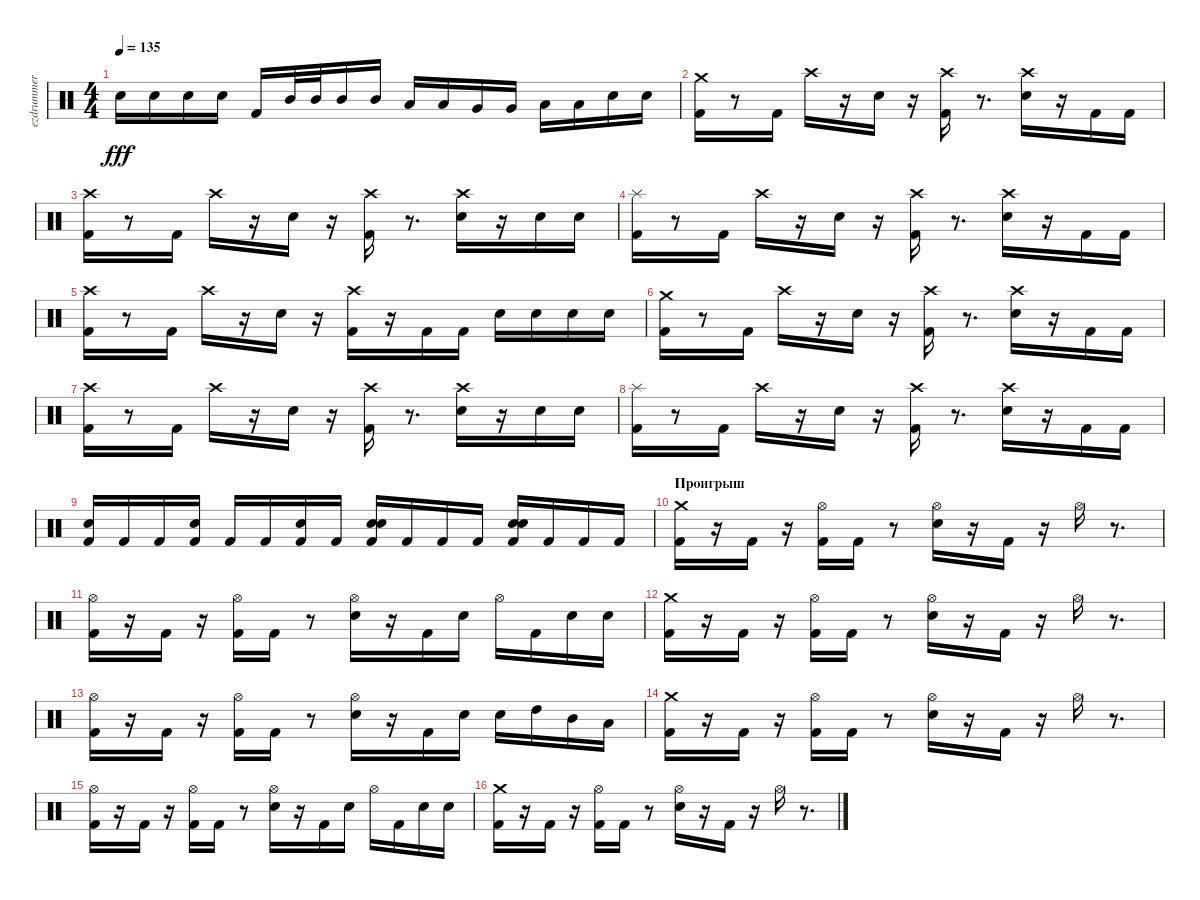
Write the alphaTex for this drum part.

\track ("ezdrummer" "ezdrummer") {instrument percussion}
\staff {score}
\articulation defaults
\ts (4 4)
\tempo 135
\clef neutral
\ks c "Snare (hit) 2".16{dy fff} "Snare (hit) 2".16 "Snare (hit) 2".16 "Snare (hit) 2".16 "Kick (hit) 2".16 "Mid Tom (hit)".32 "Mid Tom (hit)".32 "Mid Tom (hit)".16 "Mid Tom (hit)".16 "Low Tom (hit)".16 "Low Tom (hit)".16 "Very Low Tom (hit)".16 "Very Low Tom (hit)".16 "Low Floor Tom (hit)".16 "Low Floor Tom (hit)".16 "Snare (hit) 2".16 "Snare (hit) 2".16
|
("Kick (hit) 2" "Crash medium (hit)").16 r.8 "Kick (hit) 2".16 "Crash high (hit)".16 r.16 "Snare (hit) 2".16 r.16 ("Kick (hit) 2" "Crash high (hit)").16 r.8{d} ("Snare (hit) 2" "Crash high (hit)").16 r.16 "Kick (hit) 2".16 "Kick (hit) 2".16 |
("Kick (hit) 2" "Crash high (hit)").16 r.8 "Kick (hit) 2".16 "Crash high (hit)".16 r.16 "Snare (hit) 2".16 r.16 ("Kick (hit) 2" "Crash high (hit)").16 r.8{d} ("Snare (hit) 2" "Crash high (hit)").16 r.16 "Snare (hit) 2".16 "Snare (hit) 2".16 |
("Kick (hit) 2" "Splash (hit)").16 r.8 "Kick (hit) 2".16 "Crash high (hit)".16 r.16 "Snare (hit) 2".16 r.16 ("Kick (hit) 2" "Crash high (hit)").16 r.8{d} ("Snare (hit) 2" "Crash high (hit)").16 r.16 "Kick (hit) 2".16 "Kick (hit) 2".16 |
("Kick (hit) 2" "Crash high (hit)").16 r.8 "Kick (hit) 2".16 "Crash high (hit)".16 r.16 "Snare (hit) 2".16 r.16 ("Kick (hit) 2" "Crash high (hit)").16 r.16 "Kick (hit) 2".16 "Kick (hit) 2".16 "Snare (hit) 2".16 "Snare (hit) 2".16 "Snare (hit) 2".16 "Snare (hit) 2".16 |
("Kick (hit) 2" "Crash medium (hit)").16 r.8 "Kick (hit) 2".16 "Crash high (hit)".16 r.16 "Snare (hit) 2".16 r.16 ("Kick (hit) 2" "Crash high (hit)").16 r.8{d} ("Snare (hit) 2" "Crash high (hit)").16 r.16 "Kick (hit) 2".16 "Kick (hit) 2".16 |
("Kick (hit) 2" "Crash high (hit)").16 r.8 "Kick (hit) 2".16 "Crash high (hit)".16 r.16 "Snare (hit) 2".16 r.16 ("Kick (hit) 2" "Crash high (hit)").16 r.8{d} ("Snare (hit) 2" "Crash high (hit)").16 r.16 "Snare (hit) 2".16 "Snare (hit) 2".16 |
("Kick (hit) 2" "Splash (hit)").16 r.8 "Kick (hit) 2".16 "Crash high (hit)".16 r.16 "Snare (hit) 2".16 r.16 ("Kick (hit) 2" "Crash high (hit)").16 r.8{d} ("Snare (hit) 2" "Crash high (hit)").16 r.16 "Kick (hit) 2".16 "Kick (hit) 2".16 |
("Kick (hit) 2" "Snare (hit) 2").16 "Kick (hit) 2".16 "Kick (hit) 2".16 ("Kick (hit) 2" "Snare (hit) 2").16 "Kick (hit) 2".16 "Kick (hit) 2".16 ("Kick (hit) 2" "Snare (hit) 2").16 "Kick (hit) 2".16 ("Snare (hit) 2" "Kick (hit) 2" "Snare (hit) 2").16 "Kick (hit) 2".16 "Kick (hit) 2".16 "Kick (hit) 2".16 ("Snare (hit) 2" "Kick (hit) 2" "Snare (hit) 2").16 "Kick (hit) 2".16 "Kick (hit) 2".16 "Kick (hit) 2".16 |
\section ("" "Проигрыш")
("Kick (hit) 2" "Crash medium (hit)").16 r.16 "Kick (hit) 2".16 r.16 ("Kick (hit) 2" "Hi-Hat (open)").16 "Kick (hit) 2".16 r.8 ("Snare (hit) 2" "Hi-Hat (open)").16 r.16 "Kick (hit) 2".16 r.16 "Hi-Hat (open)".16 r.8{d} |
("Kick (hit) 2" "Hi-Hat (open)").16 r.16 "Kick (hit) 2".16 r.16 ("Kick (hit) 2" "Hi-Hat (open)").16 "Kick (hit) 2".16 r.8 ("Snare (hit) 2" "Hi-Hat (open)").16 r.16 "Kick (hit) 2".16 "Snare (hit) 2".16 "Hi-Hat (open)".16 "Kick (hit) 2".16 "Snare (hit) 2".16 "Snare (hit) 2".16 |
("Kick (hit) 2" "Crash medium (hit)").16 r.16 "Kick (hit) 2".16 r.16 ("Kick (hit) 2" "Hi-Hat (open)").16 "Kick (hit) 2".16 r.8 ("Snare (hit) 2" "Hi-Hat (open)").16 r.16 "Kick (hit) 2".16 r.16 "Hi-Hat (open)".16 r.8{d} |
("Kick (hit) 2" "Hi-Hat (open)").16 r.16 "Kick (hit) 2".16 r.16 ("Kick (hit) 2" "Hi-Hat (open)").16 "Kick (hit) 2".16 r.8 ("Snare (hit) 2" "Hi-Hat (open)").16 r.16 "Kick (hit) 2".16 "Snare (hit) 2".16 "Snare (hit) 2".16 "High Tom (hit)".16 "Mid Tom (hit)".16 "Low Tom (hit)".16 |
("Kick (hit) 2" "Crash medium (hit)").16 r.16 "Kick (hit) 2".16 r.16 ("Kick (hit) 2" "Hi-Hat (open)").16 "Kick (hit) 2".16 r.8 ("Snare (hit) 2" "Hi-Hat (open)").16 r.16 "Kick (hit) 2".16 r.16 "Hi-Hat (open)".16 r.8{d} |
("Kick (hit) 2" "Hi-Hat (open)").16 r.16 "Kick (hit) 2".16 r.16 ("Kick (hit) 2" "Hi-Hat (open)").16 "Kick (hit) 2".16 r.8 ("Snare (hit) 2" "Hi-Hat (open)").16 r.16 "Kick (hit) 2".16 "Snare (hit) 2".16 "Hi-Hat (open)".16 "Kick (hit) 2".16 "Snare (hit) 2".16 "Snare (hit) 2".16 |
("Kick (hit) 2" "Crash medium (hit)").16 r.16 "Kick (hit) 2".16 r.16 ("Kick (hit) 2" "Hi-Hat (open)").16 "Kick (hit) 2".16 r.8 ("Snare (hit) 2" "Hi-Hat (open)").16 r.16 "Kick (hit) 2".16 r.16 "Hi-Hat (open)".16 r.8{d}
